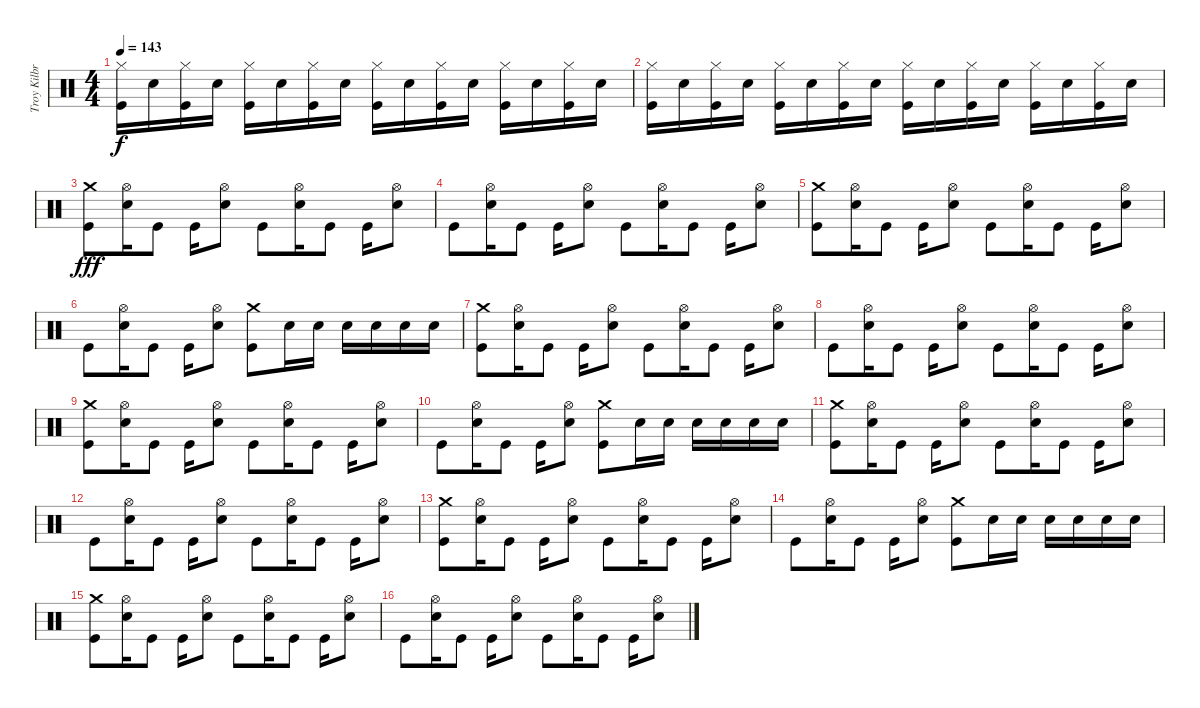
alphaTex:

\track ("Troy Kilbride" "Troy Kilbr") {instrument percussion}
\staff {score}
\articulation defaults
\ts (4 4)
\tempo 143
\clef neutral
\ks c
("Hi-Hat (closed)" "Kick (hit)").16{dy f} "Electric Snare (hit)".16 ("Hi-Hat (closed)" "Kick (hit)").16 "Electric Snare (hit)".16 ("Hi-Hat (closed)" "Kick (hit)").16 "Electric Snare (hit)".16 ("Hi-Hat (closed)" "Kick (hit)").16 "Electric Snare (hit)".16 ("Hi-Hat (closed)" "Kick (hit)").16 "Electric Snare (hit)".16 ("Hi-Hat (closed)" "Kick (hit)").16 "Electric Snare (hit)".16 ("Hi-Hat (closed)" "Kick (hit)").16 "Electric Snare (hit)".16 ("Hi-Hat (closed)" "Kick (hit)").16 "Electric Snare (hit)".16 |
("Hi-Hat (closed)" "Kick (hit)").16 "Electric Snare (hit)".16 ("Hi-Hat (closed)" "Kick (hit)").16 "Electric Snare (hit)".16 ("Hi-Hat (closed)" "Kick (hit)").16 "Electric Snare (hit)".16 ("Hi-Hat (closed)" "Kick (hit)").16 "Electric Snare (hit)".16 ("Hi-Hat (closed)" "Kick (hit)").16 "Electric Snare (hit)".16 ("Hi-Hat (closed)" "Kick (hit)").16 "Electric Snare (hit)".16 ("Hi-Hat (closed)" "Kick (hit)").16 "Electric Snare (hit)".16 ("Hi-Hat (closed)" "Kick (hit)").16 "Electric Snare (hit)".16 |
("Crash medium (hit)" "Kick (hit)").8{dy fff} ("Hi-Hat (open)" "Electric Snare (hit)").16 "Kick (hit)".8 "Kick (hit)".16 ("Hi-Hat (open)" "Electric Snare (hit)").8 "Kick (hit)".8 ("Hi-Hat (open)" "Electric Snare (hit)").16 "Kick (hit)".8 "Kick (hit)".16 ("Hi-Hat (open)" "Electric Snare (hit)").8 |
"Kick (hit)".8 ("Hi-Hat (open)" "Electric Snare (hit)").16 "Kick (hit)".8 "Kick (hit)".16 ("Hi-Hat (open)" "Electric Snare (hit)").8 "Kick (hit)".8 ("Hi-Hat (open)" "Electric Snare (hit)").16 "Kick (hit)".8 "Kick (hit)".16 ("Hi-Hat (open)" "Electric Snare (hit)").8 |
("Crash medium (hit)" "Kick (hit)").8 ("Hi-Hat (open)" "Electric Snare (hit)").16 "Kick (hit)".8 "Kick (hit)".16 ("Hi-Hat (open)" "Electric Snare (hit)").8 "Kick (hit)".8 ("Hi-Hat (open)" "Electric Snare (hit)").16 "Kick (hit)".8 "Kick (hit)".16 ("Hi-Hat (open)" "Electric Snare (hit)").8 |
"Kick (hit)".8 ("Hi-Hat (open)" "Electric Snare (hit)").16 "Kick (hit)".8 "Kick (hit)".16 ("Hi-Hat (open)" "Electric Snare (hit)").8 ("Crash medium (hit)" "Kick (hit)").8 "Electric Snare (hit)".16 "Electric Snare (hit)".16 "Electric Snare (hit)".16 "Electric Snare (hit)".16 "Electric Snare (hit)".16 "Electric Snare (hit)".16 |
("Crash medium (hit)" "Kick (hit)").8 ("Hi-Hat (open)" "Electric Snare (hit)").16 "Kick (hit)".8 "Kick (hit)".16 ("Hi-Hat (open)" "Electric Snare (hit)").8 "Kick (hit)".8 ("Hi-Hat (open)" "Electric Snare (hit)").16 "Kick (hit)".8 "Kick (hit)".16 ("Hi-Hat (open)" "Electric Snare (hit)").8 |
"Kick (hit)".8 ("Hi-Hat (open)" "Electric Snare (hit)").16 "Kick (hit)".8 "Kick (hit)".16 ("Hi-Hat (open)" "Electric Snare (hit)").8 "Kick (hit)".8 ("Hi-Hat (open)" "Electric Snare (hit)").16 "Kick (hit)".8 "Kick (hit)".16 ("Hi-Hat (open)" "Electric Snare (hit)").8 |
("Crash medium (hit)" "Kick (hit)").8 ("Hi-Hat (open)" "Electric Snare (hit)").16 "Kick (hit)".8 "Kick (hit)".16 ("Hi-Hat (open)" "Electric Snare (hit)").8 "Kick (hit)".8 ("Hi-Hat (open)" "Electric Snare (hit)").16 "Kick (hit)".8 "Kick (hit)".16 ("Hi-Hat (open)" "Electric Snare (hit)").8 |
"Kick (hit)".8 ("Hi-Hat (open)" "Electric Snare (hit)").16 "Kick (hit)".8 "Kick (hit)".16 ("Hi-Hat (open)" "Electric Snare (hit)").8 ("Crash medium (hit)" "Kick (hit)").8 "Electric Snare (hit)".16 "Electric Snare (hit)".16 "Electric Snare (hit)".16 "Electric Snare (hit)".16 "Electric Snare (hit)".16 "Electric Snare (hit)".16 |
("Crash medium (hit)" "Kick (hit)").8 ("Hi-Hat (open)" "Electric Snare (hit)").16 "Kick (hit)".8 "Kick (hit)".16 ("Hi-Hat (open)" "Electric Snare (hit)").8 "Kick (hit)".8 ("Hi-Hat (open)" "Electric Snare (hit)").16 "Kick (hit)".8 "Kick (hit)".16 ("Hi-Hat (open)" "Electric Snare (hit)").8 |
"Kick (hit)".8 ("Hi-Hat (open)" "Electric Snare (hit)").16 "Kick (hit)".8 "Kick (hit)".16 ("Hi-Hat (open)" "Electric Snare (hit)").8 "Kick (hit)".8 ("Hi-Hat (open)" "Electric Snare (hit)").16 "Kick (hit)".8 "Kick (hit)".16 ("Hi-Hat (open)" "Electric Snare (hit)").8 |
("Crash medium (hit)" "Kick (hit)").8 ("Hi-Hat (open)" "Electric Snare (hit)").16 "Kick (hit)".8 "Kick (hit)".16 ("Hi-Hat (open)" "Electric Snare (hit)").8 "Kick (hit)".8 ("Hi-Hat (open)" "Electric Snare (hit)").16 "Kick (hit)".8 "Kick (hit)".16 ("Hi-Hat (open)" "Electric Snare (hit)").8 |
"Kick (hit)".8 ("Hi-Hat (open)" "Electric Snare (hit)").16 "Kick (hit)".8 "Kick (hit)".16 ("Hi-Hat (open)" "Electric Snare (hit)").8 ("Crash medium (hit)" "Kick (hit)").8 "Electric Snare (hit)".16 "Electric Snare (hit)".16 "Electric Snare (hit)".16 "Electric Snare (hit)".16 "Electric Snare (hit)".16 "Electric Snare (hit)".16 |
("Crash medium (hit)" "Kick (hit)").8 ("Hi-Hat (open)" "Electric Snare (hit)").16 "Kick (hit)".8 "Kick (hit)".16 ("Hi-Hat (open)" "Electric Snare (hit)").8 "Kick (hit)".8 ("Hi-Hat (open)" "Electric Snare (hit)").16 "Kick (hit)".8 "Kick (hit)".16 ("Hi-Hat (open)" "Electric Snare (hit)").8 |
"Kick (hit)".8 ("Hi-Hat (open)" "Electric Snare (hit)").16 "Kick (hit)".8 "Kick (hit)".16 ("Hi-Hat (open)" "Electric Snare (hit)").8 "Kick (hit)".8 ("Hi-Hat (open)" "Electric Snare (hit)").16 "Kick (hit)".8 "Kick (hit)".16 ("Hi-Hat (open)" "Electric Snare (hit)").8
